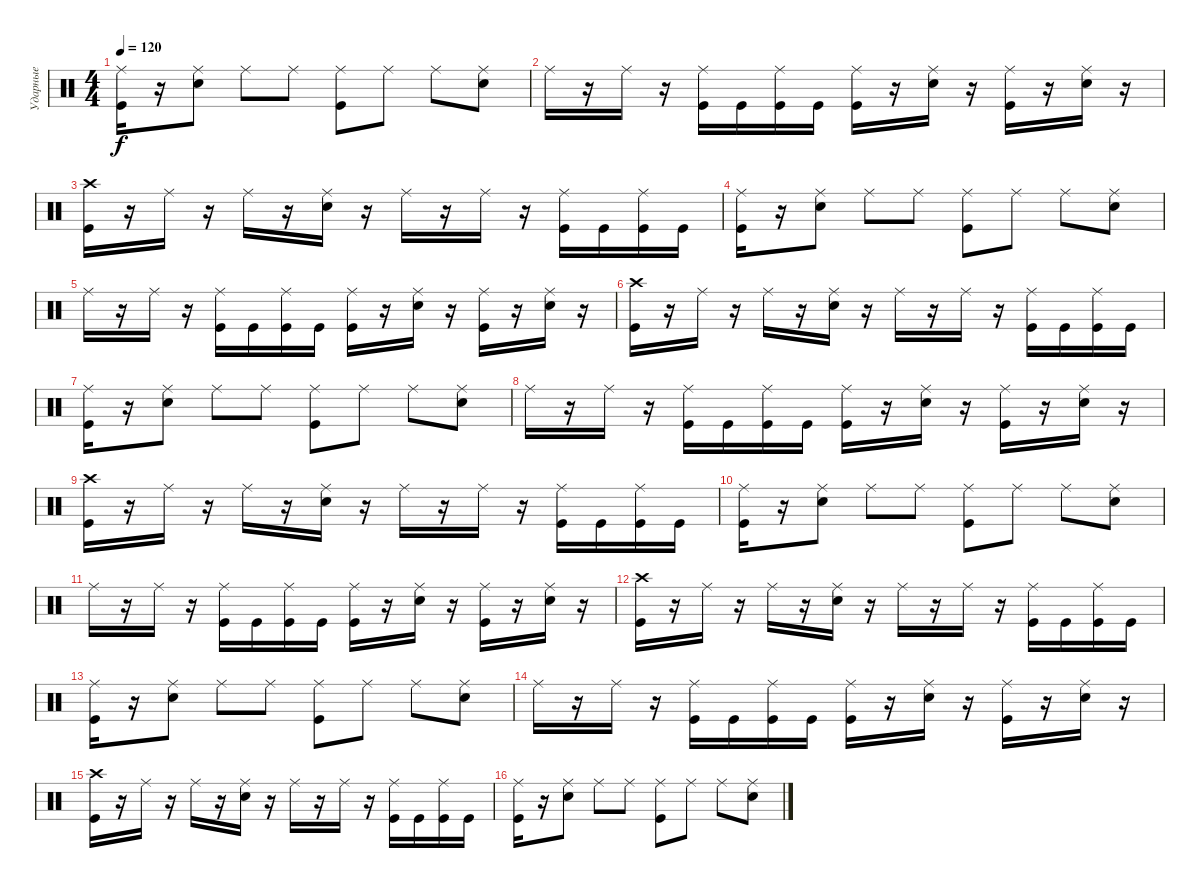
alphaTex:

\track ("Ударные" "Ударные") {instrument percussion}
\staff {score}
\articulation defaults
\ts (4 4)
\tempo 120
\clef neutral
\ks c
("Ride (middle)" "Kick (hit)").16{dy f} r.16 ("Ride (middle)" "Snare (hit) 2").8 "Ride (middle)".8 "Ride (middle)".8 ("Ride (middle)" "Kick (hit)").8 "Ride (middle)".8 "Ride (middle)".8 ("Ride (middle)" "Snare (hit) 2").8 |
"Ride (middle)".16 r.16 "Ride (middle)".16 r.16 ("Ride (middle)" "Kick (hit)").16 "Kick (hit)".16 ("Ride (middle)" "Kick (hit)").16 "Kick (hit)".16 ("Ride (middle)" "Kick (hit)").16 r.16 ("Ride (middle)" "Snare (hit) 2").16 r.16 ("Ride (middle)" "Kick (hit)").16 r.16 ("Ride (middle)" "Snare (hit) 2").16 r.16 |
("Crash high (hit)" "Kick (hit)").16 r.16 "Ride (middle)".16 r.16 "Ride (middle)".16 r.16 ("Ride (middle)" "Snare (hit) 2").16 r.16 "Ride (middle)".16 r.16 "Ride (middle)".16 r.16 ("Ride (middle)" "Kick (hit)").16 "Kick (hit)".16 ("Ride (middle)" "Kick (hit)").16 "Kick (hit)".16 |
("Ride (middle)" "Kick (hit)").16 r.16 ("Ride (middle)" "Snare (hit) 2").8 "Ride (middle)".8 "Ride (middle)".8 ("Ride (middle)" "Kick (hit)").8 "Ride (middle)".8 "Ride (middle)".8 ("Ride (middle)" "Snare (hit) 2").8 |
"Ride (middle)".16 r.16 "Ride (middle)".16 r.16 ("Ride (middle)" "Kick (hit)").16 "Kick (hit)".16 ("Ride (middle)" "Kick (hit)").16 "Kick (hit)".16 ("Ride (middle)" "Kick (hit)").16 r.16 ("Ride (middle)" "Snare (hit) 2").16 r.16 ("Ride (middle)" "Kick (hit)").16 r.16 ("Ride (middle)" "Snare (hit) 2").16 r.16 |
("Crash high (hit)" "Kick (hit)").16 r.16 "Ride (middle)".16 r.16 "Ride (middle)".16 r.16 ("Ride (middle)" "Snare (hit) 2").16 r.16 "Ride (middle)".16 r.16 "Ride (middle)".16 r.16 ("Ride (middle)" "Kick (hit)").16 "Kick (hit)".16 ("Ride (middle)" "Kick (hit)").16 "Kick (hit)".16 |
("Ride (middle)" "Kick (hit)").16 r.16 ("Ride (middle)" "Snare (hit) 2").8 "Ride (middle)".8 "Ride (middle)".8 ("Ride (middle)" "Kick (hit)").8 "Ride (middle)".8 "Ride (middle)".8 ("Ride (middle)" "Snare (hit) 2").8 |
"Ride (middle)".16 r.16 "Ride (middle)".16 r.16 ("Ride (middle)" "Kick (hit)").16 "Kick (hit)".16 ("Ride (middle)" "Kick (hit)").16 "Kick (hit)".16 ("Ride (middle)" "Kick (hit)").16 r.16 ("Ride (middle)" "Snare (hit) 2").16 r.16 ("Ride (middle)" "Kick (hit)").16 r.16 ("Ride (middle)" "Snare (hit) 2").16 r.16 |
("Crash high (hit)" "Kick (hit)").16 r.16 "Ride (middle)".16 r.16 "Ride (middle)".16 r.16 ("Ride (middle)" "Snare (hit) 2").16 r.16 "Ride (middle)".16 r.16 "Ride (middle)".16 r.16 ("Ride (middle)" "Kick (hit)").16 "Kick (hit)".16 ("Ride (middle)" "Kick (hit)").16 "Kick (hit)".16 |
("Ride (middle)" "Kick (hit)").16 r.16 ("Ride (middle)" "Snare (hit) 2").8 "Ride (middle)".8 "Ride (middle)".8 ("Ride (middle)" "Kick (hit)").8 "Ride (middle)".8 "Ride (middle)".8 ("Ride (middle)" "Snare (hit) 2").8 |
"Ride (middle)".16 r.16 "Ride (middle)".16 r.16 ("Ride (middle)" "Kick (hit)").16 "Kick (hit)".16 ("Ride (middle)" "Kick (hit)").16 "Kick (hit)".16 ("Ride (middle)" "Kick (hit)").16 r.16 ("Ride (middle)" "Snare (hit) 2").16 r.16 ("Ride (middle)" "Kick (hit)").16 r.16 ("Ride (middle)" "Snare (hit) 2").16 r.16 |
("Crash high (hit)" "Kick (hit)").16 r.16 "Ride (middle)".16 r.16 "Ride (middle)".16 r.16 ("Ride (middle)" "Snare (hit) 2").16 r.16 "Ride (middle)".16 r.16 "Ride (middle)".16 r.16 ("Ride (middle)" "Kick (hit)").16 "Kick (hit)".16 ("Ride (middle)" "Kick (hit)").16 "Kick (hit)".16 |
("Ride (middle)" "Kick (hit)").16 r.16 ("Ride (middle)" "Snare (hit) 2").8 "Ride (middle)".8 "Ride (middle)".8 ("Ride (middle)" "Kick (hit)").8 "Ride (middle)".8 "Ride (middle)".8 ("Ride (middle)" "Snare (hit) 2").8 |
"Ride (middle)".16 r.16 "Ride (middle)".16 r.16 ("Ride (middle)" "Kick (hit)").16 "Kick (hit)".16 ("Ride (middle)" "Kick (hit)").16 "Kick (hit)".16 ("Ride (middle)" "Kick (hit)").16 r.16 ("Ride (middle)" "Snare (hit) 2").16 r.16 ("Ride (middle)" "Kick (hit)").16 r.16 ("Ride (middle)" "Snare (hit) 2").16 r.16 |
("Crash high (hit)" "Kick (hit)").16 r.16 "Ride (middle)".16 r.16 "Ride (middle)".16 r.16 ("Ride (middle)" "Snare (hit) 2").16 r.16 "Ride (middle)".16 r.16 "Ride (middle)".16 r.16 ("Ride (middle)" "Kick (hit)").16 "Kick (hit)".16 ("Ride (middle)" "Kick (hit)").16 "Kick (hit)".16 |
("Ride (middle)" "Kick (hit)").16 r.16 ("Ride (middle)" "Snare (hit) 2").8 "Ride (middle)".8 "Ride (middle)".8 ("Ride (middle)" "Kick (hit)").8 "Ride (middle)".8 "Ride (middle)".8 ("Ride (middle)" "Snare (hit) 2").8
